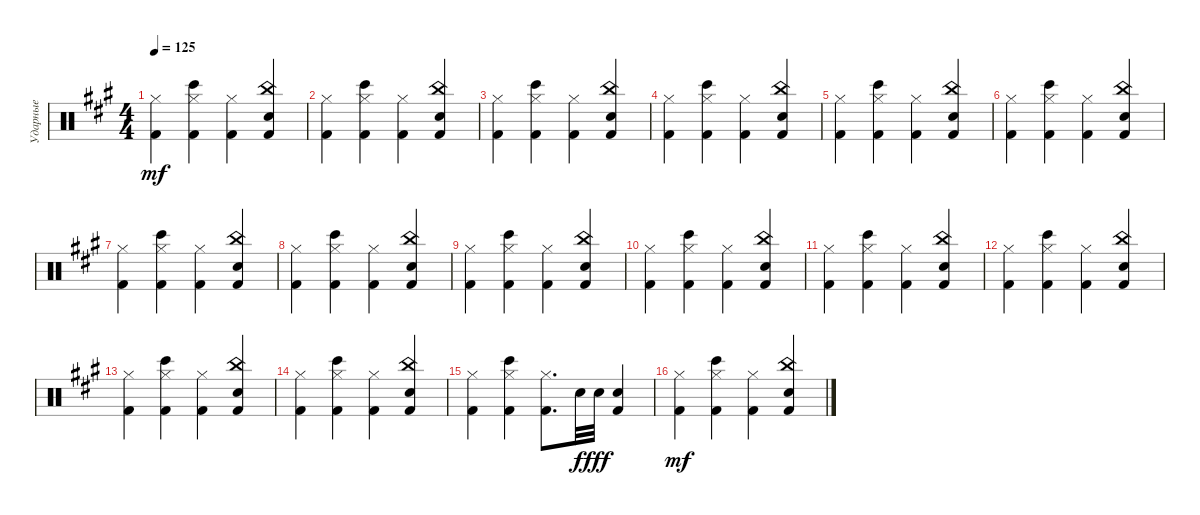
\track ("Ударные" "Ударные") {instrument percussion}
\staff {score}
\articulation defaults
\ts (4 4)
\tempo 125
\clef neutral
\ks f#minor
("Hi-Hat (closed)" "Kick (hit) 2").4{dy mf} ("Hi-Hat (closed)" "Bongo High (hit)" "Kick (hit) 2").4 ("Hi-Hat (closed)" "Kick (hit) 2").4 ("China (hit)" "Electric Snare (hit)" "Kick (hit) 2").4 |
("Hi-Hat (closed)" "Kick (hit) 2").4 ("Hi-Hat (closed)" "Bongo High (hit)" "Kick (hit) 2").4 ("Hi-Hat (closed)" "Kick (hit) 2").4 ("China (hit)" "Electric Snare (hit)" "Kick (hit) 2").4 |
("Hi-Hat (closed)" "Kick (hit) 2").4 ("Hi-Hat (closed)" "Bongo High (hit)" "Kick (hit) 2").4 ("Hi-Hat (closed)" "Kick (hit) 2").4 ("China (hit)" "Electric Snare (hit)" "Kick (hit) 2").4 |
("Hi-Hat (closed)" "Kick (hit) 2").4 ("Hi-Hat (closed)" "Bongo High (hit)" "Kick (hit) 2").4 ("Hi-Hat (closed)" "Kick (hit) 2").4 ("China (hit)" "Electric Snare (hit)" "Kick (hit) 2").4 |
("Hi-Hat (closed)" "Kick (hit) 2").4 ("Hi-Hat (closed)" "Bongo High (hit)" "Kick (hit) 2").4 ("Hi-Hat (closed)" "Kick (hit) 2").4 ("China (hit)" "Electric Snare (hit)" "Kick (hit) 2").4 |
("Hi-Hat (closed)" "Kick (hit) 2").4 ("Hi-Hat (closed)" "Bongo High (hit)" "Kick (hit) 2").4 ("Hi-Hat (closed)" "Kick (hit) 2").4 ("China (hit)" "Electric Snare (hit)" "Kick (hit) 2").4 |
("Hi-Hat (closed)" "Kick (hit) 2").4 ("Hi-Hat (closed)" "Bongo High (hit)" "Kick (hit) 2").4 ("Hi-Hat (closed)" "Kick (hit) 2").4 ("China (hit)" "Electric Snare (hit)" "Kick (hit) 2").4 |
("Hi-Hat (closed)" "Kick (hit) 2").4 ("Hi-Hat (closed)" "Bongo High (hit)" "Kick (hit) 2").4 ("Hi-Hat (closed)" "Kick (hit) 2").4 ("China (hit)" "Electric Snare (hit)" "Kick (hit) 2").4 |
("Hi-Hat (closed)" "Kick (hit) 2").4 ("Hi-Hat (closed)" "Bongo High (hit)" "Kick (hit) 2").4 ("Hi-Hat (closed)" "Kick (hit) 2").4 ("China (hit)" "Electric Snare (hit)" "Kick (hit) 2").4 |
("Hi-Hat (closed)" "Kick (hit) 2").4 ("Hi-Hat (closed)" "Bongo High (hit)" "Kick (hit) 2").4 ("Hi-Hat (closed)" "Kick (hit) 2").4 ("China (hit)" "Electric Snare (hit)" "Kick (hit) 2").4 |
("Hi-Hat (closed)" "Kick (hit) 2").4 ("Hi-Hat (closed)" "Bongo High (hit)" "Kick (hit) 2").4 ("Hi-Hat (closed)" "Kick (hit) 2").4 ("China (hit)" "Electric Snare (hit)" "Kick (hit) 2").4 |
("Hi-Hat (closed)" "Kick (hit) 2").4 ("Hi-Hat (closed)" "Bongo High (hit)" "Kick (hit) 2").4 ("Hi-Hat (closed)" "Kick (hit) 2").4 ("China (hit)" "Electric Snare (hit)" "Kick (hit) 2").4 |
("Hi-Hat (closed)" "Kick (hit) 2").4 ("Hi-Hat (closed)" "Bongo High (hit)" "Kick (hit) 2").4 ("Hi-Hat (closed)" "Kick (hit) 2").4 ("China (hit)" "Electric Snare (hit)" "Kick (hit) 2").4 |
("Hi-Hat (closed)" "Kick (hit) 2").4 ("Hi-Hat (closed)" "Bongo High (hit)" "Kick (hit) 2").4 ("Hi-Hat (closed)" "Kick (hit) 2").4 ("China (hit)" "Electric Snare (hit)" "Kick (hit) 2").4 |
("Hi-Hat (closed)" "Kick (hit) 2").4 ("Hi-Hat (closed)" "Bongo High (hit)" "Kick (hit) 2").4 ("Hi-Hat (closed)" "Kick (hit) 2").8{d} "Snare (hit) 2".32{dy f} "Snare (hit) 2".32{dy fff} ("Snare (hit) 2" "Kick (hit) 2").4 |
("Hi-Hat (closed)" "Kick (hit) 2").4{dy mf} ("Hi-Hat (closed)" "Bongo High (hit)" "Kick (hit) 2").4 ("Hi-Hat (closed)" "Kick (hit) 2").4 ("China (hit)" "Electric Snare (hit)" "Kick (hit) 2").4
